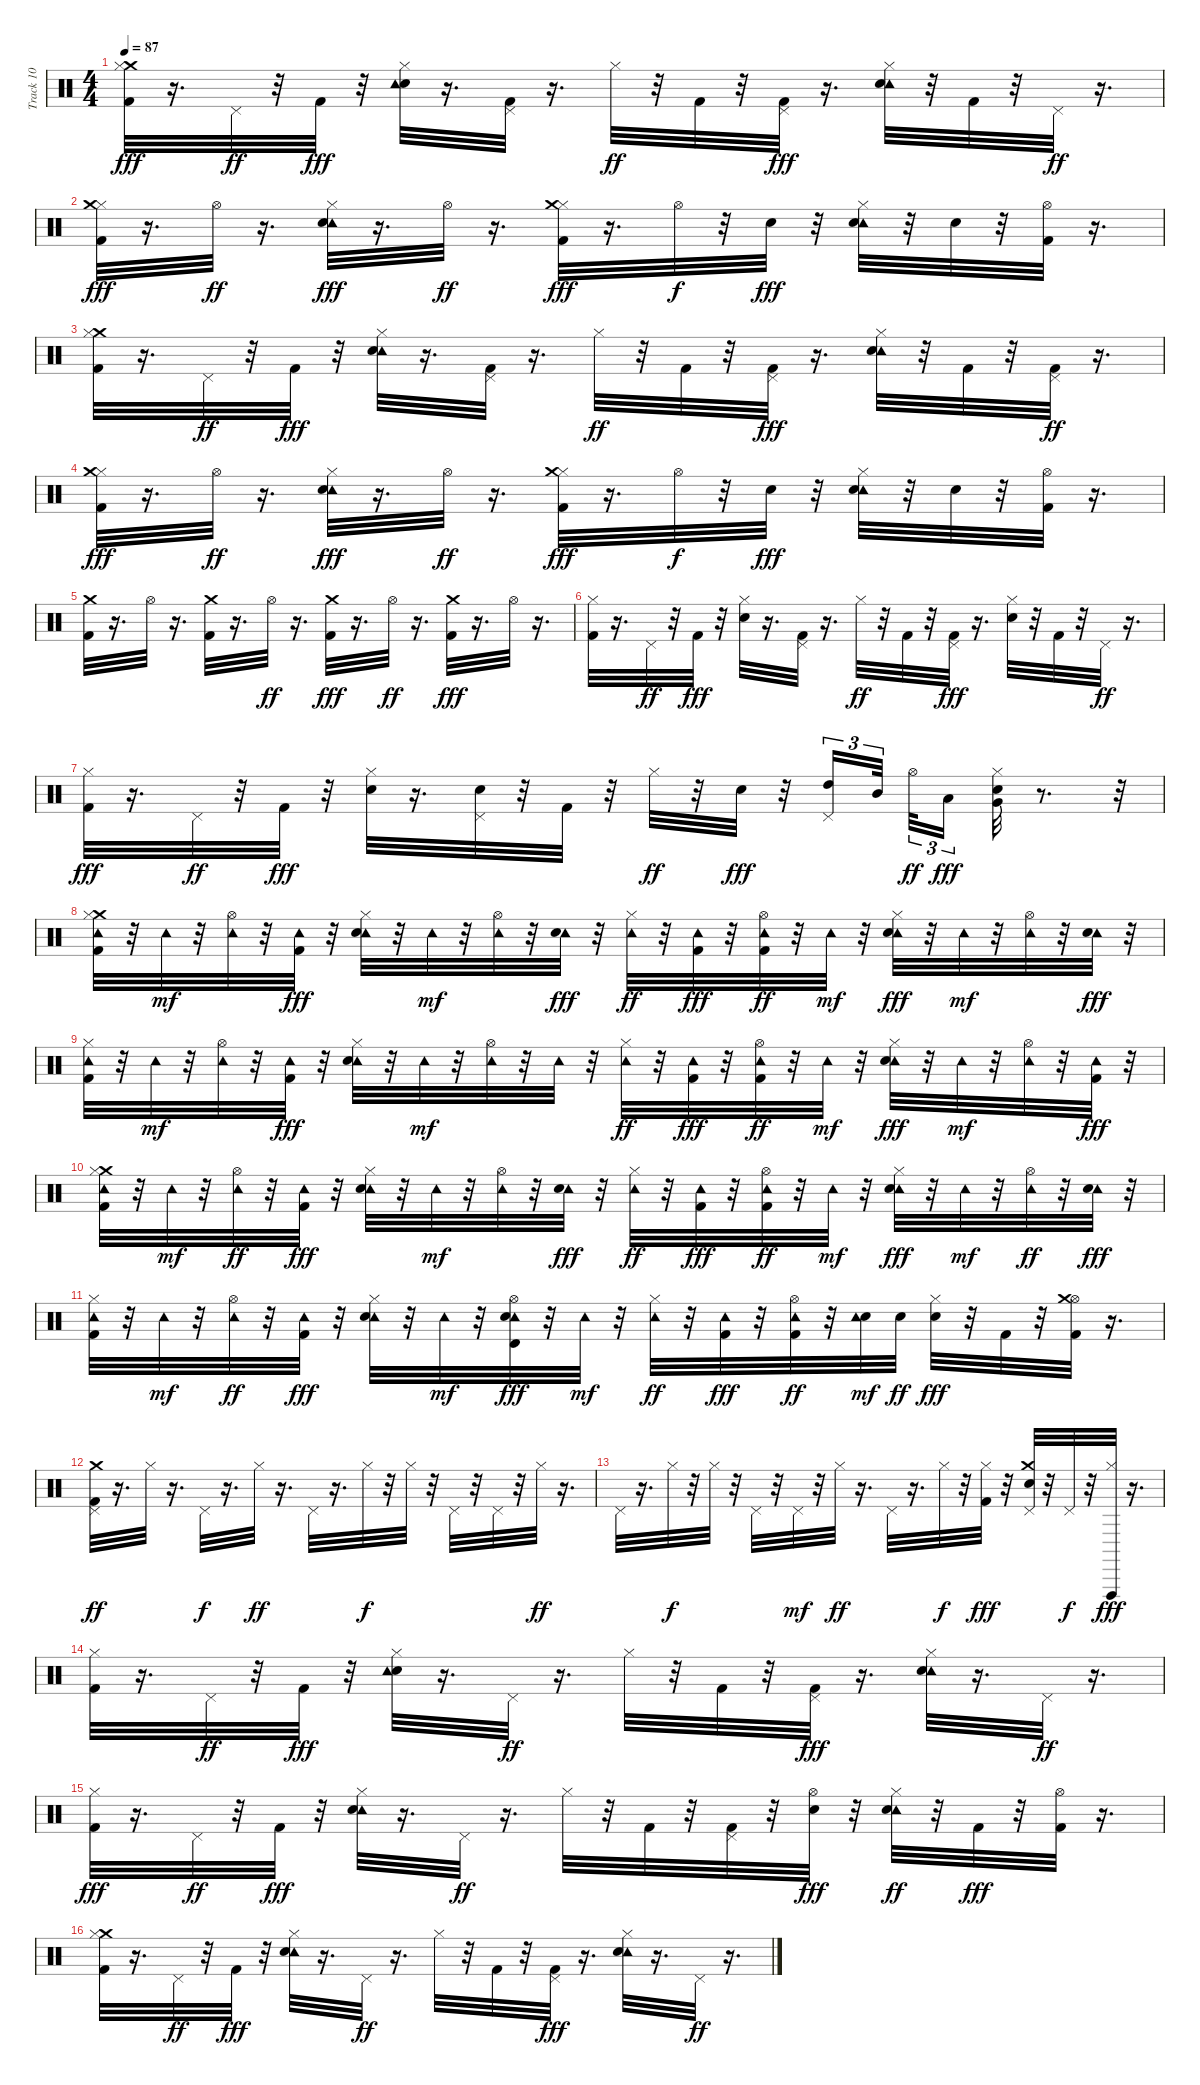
\track ("Track 10" "Track 10") {instrument percussion}
\staff {score}
\articulation defaults
\ts (4 4)
\tempo 87
\clef neutral
\ks c
("Crash medium (hit)" "Hi-Hat (closed)" "Kick (hit) 2").32{dy fff} r.16{d} "Pedal Hi-Hat (hit)".32{dy ff} r.32 "Kick (hit) 2".32{dy fff} r.32 ("Hi-Hat (closed)" "Snare (hit) 2" "Tambourine (hit)").32 r.16{d} ("Pedal Hi-Hat (hit)" "Kick (hit) 2").32 r.16{d} "Hi-Hat (closed)".32{dy ff} r.32 "Kick (hit) 2".32 r.32 ("Pedal Hi-Hat (hit)" "Kick (hit) 2").32{dy fff} r.16{d} ("Hi-Hat (closed)" "Tambourine (hit)" "Snare (hit) 2").32 r.32 "Kick (hit) 2".32 r.32 "Pedal Hi-Hat (hit)".32{dy ff} r.16{d} |
("Hi-Hat (closed)" "Kick (hit) 2" "Crash medium (hit)").32{dy fff} r.16{d} "Hi-Hat (open)".32{dy ff} r.16{d} ("Tambourine (hit)" "Hi-Hat (closed)" "Snare (hit) 2").32{dy fff} r.16{d} "Hi-Hat (open)".32{dy ff} r.16{d} ("Hi-Hat (closed)" "Kick (hit) 2" "Crash medium (hit)").32{dy fff} r.16{d} "Hi-Hat (open)".32{dy f} r.32 "Snare (hit) 2".32{dy fff} r.32 ("Tambourine (hit)" "Hi-Hat (closed)" "Snare (hit) 2").32 r.32 "Snare (hit) 2".32 r.32 ("Hi-Hat (open)" "Kick (hit) 2").32 r.16{d} |
("Crash medium (hit)" "Hi-Hat (closed)" "Kick (hit) 2").32 r.16{d} "Pedal Hi-Hat (hit)".32{dy ff} r.32 "Kick (hit) 2".32{dy fff} r.32 ("Tambourine (hit)" "Hi-Hat (closed)" "Snare (hit) 2").32 r.16{d} ("Pedal Hi-Hat (hit)" "Kick (hit) 2").32 r.16{d} "Hi-Hat (closed)".32{dy ff} r.32 "Kick (hit) 2".32 r.32 ("Pedal Hi-Hat (hit)" "Kick (hit) 2").32{dy fff} r.16{d} ("Tambourine (hit)" "Hi-Hat (closed)" "Snare (hit) 2").32 r.32 "Kick (hit) 2".32 r.32 ("Pedal Hi-Hat (hit)" "Kick (hit) 2").32{dy ff} r.16{d} |
("Hi-Hat (closed)" "Kick (hit) 2" "Crash medium (hit)").32{dy fff} r.16{d} "Hi-Hat (open)".32{dy ff} r.16{d} ("Tambourine (hit)" "Hi-Hat (closed)" "Snare (hit) 2").32{dy fff} r.16{d} "Hi-Hat (open)".32{dy ff} r.16{d} ("Hi-Hat (closed)" "Kick (hit) 2" "Crash medium (hit)").32{dy fff} r.16{d} "Hi-Hat (open)".32{dy f} r.32 "Snare (hit) 2".32{dy fff} r.32 ("Tambourine (hit)" "Hi-Hat (closed)" "Snare (hit) 2").32 r.32 "Snare (hit) 2".32 r.32 ("Hi-Hat (open)" "Kick (hit) 2").32 r.16{d} |
("Crash medium (hit)" "Kick (hit) 2").32 r.16{d} "Hi-Hat (open)".32 r.16{d} ("Kick (hit) 2" "Crash medium (hit)").32 r.16{d} "Hi-Hat (open)".32{dy ff} r.16{d} ("Kick (hit) 2" "Crash medium (hit)").32{dy fff} r.16{d} "Hi-Hat (open)".32{dy ff} r.16{d} ("Kick (hit) 2" "Crash medium (hit)").32{dy fff} r.16{d} "Hi-Hat (open)".32 r.16{d} |
("Hi-Hat (closed)" "Kick (hit) 2").32 r.16{d} "Pedal Hi-Hat (hit)".32{dy ff} r.32 "Kick (hit) 2".32{dy fff} r.32 ("Hi-Hat (closed)" "Snare (hit) 2").32 r.16{d} ("Pedal Hi-Hat (hit)" "Kick (hit) 2").32 r.16{d} "Hi-Hat (closed)".32{dy ff} r.32 "Kick (hit) 2".32 r.32 ("Pedal Hi-Hat (hit)" "Kick (hit) 2").32{dy fff} r.16{d} ("Hi-Hat (closed)" "Snare (hit) 2").32 r.32 "Kick (hit) 2".32 r.32 "Pedal Hi-Hat (hit)".32{dy ff} r.16{d} |
("Hi-Hat (closed)" "Kick (hit) 2").32{dy fff} r.16{d} "Pedal Hi-Hat (hit)".32{dy ff} r.32 "Kick (hit) 2".32{dy fff} r.32 ("Hi-Hat (closed)" "Snare (hit) 2").32 r.16{d} ("Pedal Hi-Hat (hit)" "Snare (hit) 2").32 r.32 "Kick (hit) 2".32 r.32 "Hi-Hat (closed)".32{dy ff} r.32 "Snare (hit) 2".32{dy fff} r.32 ("High Tom (hit)" "Pedal Hi-Hat (hit)").16{tu (3 2)} "Mid Tom (hit)".32{tu (3 2) beam splitsecondary} "Hi-Hat (open)".32{tu (3 2) dy ff} "Low Tom (hit)".16{tu (3 2) dy fff} ("Very Low Tom (hit)" "Hi-Hat (closed)" "Snare (hit) 2").32 r.8{d} r.32 |
("Crash medium (hit)" "Hi-Hat (closed)" "Tambourine (hit)" "Kick (hit) 2").32 r.32 "Tambourine (hit)".32{dy mf} r.32 ("Hi-Hat (open)" "Tambourine (hit)").32 r.32 ("Tambourine (hit)" "Kick (hit) 2").32{dy fff} r.32 ("Hi-Hat (closed)" "Tambourine (hit)" "Snare (hit) 2").32 r.32 "Tambourine (hit)".32{dy mf} r.32 ("Hi-Hat (open)" "Tambourine (hit)").32 r.32 ("Tambourine (hit)" "Snare (hit) 2").32{dy fff} r.32 ("Hi-Hat (closed)" "Tambourine (hit)").32{dy ff} r.32 ("Tambourine (hit)" "Kick (hit) 2").32{dy fff} r.32 ("Hi-Hat (open)" "Tambourine (hit)" "Kick (hit) 2").32{dy ff} r.32 "Tambourine (hit)".32{dy mf} r.32 ("Hi-Hat (closed)" "Tambourine (hit)" "Snare (hit) 2").32{dy fff} r.32 "Tambourine (hit)".32{dy mf} r.32 ("Hi-Hat (open)" "Tambourine (hit)").32 r.32 ("Tambourine (hit)" "Snare (hit) 2").32{dy fff} r.32 |
("Hi-Hat (closed)" "Tambourine (hit)" "Kick (hit) 2").32 r.32 "Tambourine (hit)".32{dy mf} r.32 ("Hi-Hat (open)" "Tambourine (hit)").32 r.32 ("Tambourine (hit)" "Kick (hit) 2").32{dy fff} r.32 ("Hi-Hat (closed)" "Tambourine (hit)" "Snare (hit) 2").32 r.32 "Tambourine (hit)".32{dy mf} r.32 ("Hi-Hat (open)" "Tambourine (hit)").32 r.32 "Tambourine (hit)".32 r.32 ("Hi-Hat (closed)" "Tambourine (hit)").32{dy ff} r.32 ("Tambourine (hit)" "Kick (hit) 2").32{dy fff} r.32 ("Hi-Hat (open)" "Tambourine (hit)" "Kick (hit) 2").32{dy ff} r.32 "Tambourine (hit)".32{dy mf} r.32 ("Hi-Hat (closed)" "Tambourine (hit)" "Snare (hit) 2").32{dy fff} r.32 "Tambourine (hit)".32{dy mf} r.32 ("Hi-Hat (open)" "Tambourine (hit)").32 r.32 ("Tambourine (hit)" "Kick (hit) 2").32{dy fff} r.32 |
("Tambourine (hit)" "Crash medium (hit)" "Hi-Hat (closed)" "Kick (hit) 2").32 r.32 "Tambourine (hit)".32{dy mf} r.32 ("Tambourine (hit)" "Hi-Hat (open)").32{dy ff} r.32 ("Tambourine (hit)" "Kick (hit) 2").32{dy fff} r.32 ("Tambourine (hit)" "Hi-Hat (closed)" "Snare (hit) 2").32 r.32 "Tambourine (hit)".32{dy mf} r.32 ("Tambourine (hit)" "Hi-Hat (open)").32 r.32 ("Tambourine (hit)" "Snare (hit) 2").32{dy fff} r.32 ("Tambourine (hit)" "Hi-Hat (closed)").32{dy ff} r.32 ("Tambourine (hit)" "Kick (hit) 2").32{dy fff} r.32 ("Tambourine (hit)" "Hi-Hat (open)" "Kick (hit) 2").32{dy ff} r.32 "Tambourine (hit)".32{dy mf} r.32 ("Tambourine (hit)" "Hi-Hat (closed)" "Snare (hit) 2").32{dy fff} r.32 "Tambourine (hit)".32{dy mf} r.32 ("Tambourine (hit)" "Hi-Hat (open)").32{dy ff} r.32 ("Tambourine (hit)" "Snare (hit) 2").32{dy fff} r.32 |
("Tambourine (hit)" "Hi-Hat (closed)" "Kick (hit) 2").32 r.32 "Tambourine (hit)".32{dy mf} r.32 ("Tambourine (hit)" "Hi-Hat (open)").32{dy ff} r.32 ("Tambourine (hit)" "Kick (hit) 2").32{dy fff} r.32 ("Tambourine (hit)" "Hi-Hat (closed)" "Snare (hit) 2").32 r.32 "Tambourine (hit)".32{dy mf} r.32 ("Tambourine (hit)" "Hi-Hat (open)" "Timbale high (hit)" "Snare (hit) 2").32{dy fff} r.32 "Tambourine (hit)".32{dy mf} r.32 ("Tambourine (hit)" "Hi-Hat (closed)").32{dy ff} r.32 ("Tambourine (hit)" "Kick (hit) 2").32{dy fff} r.32 ("Tambourine (hit)" "Hi-Hat (open)" "Kick (hit) 2").32{dy ff} r.32 ("Snare (hit) 2" "Tambourine (hit)").32{dy mf} "Snare (hit) 2".32{dy ff} ("Hi-Hat (closed)" "Snare (hit) 2").32{dy fff} r.32 "Kick (hit) 2".32 r.32 ("Hi-Hat (open)" "Kick (hit) 2" "Crash medium (hit)").32 r.16{d} |
("Kick (hit) 2" "Crash medium (hit)" "Pedal Hi-Hat (hit)").32{dy ff} r.16{d} "Hi-Hat (closed)".32 r.16{d} "Pedal Hi-Hat (hit)".32{dy f} r.16{d} "Hi-Hat (closed)".32{dy ff} r.16{d} "Pedal Hi-Hat (hit)".32 r.16{d} "Hi-Hat (closed)".32{dy f} r.32 "Hi-Hat (closed)".32 r.32 "Pedal Hi-Hat (hit)".32 r.32 "Pedal Hi-Hat (hit)".32 r.32 "Hi-Hat (closed)".32{dy ff} r.16{d} |
"Pedal Hi-Hat (hit)".32 r.16{d} "Hi-Hat (closed)".32{dy f} r.32 "Hi-Hat (closed)".32 r.32 "Pedal Hi-Hat (hit)".32 r.32 "Pedal Hi-Hat (hit)".32{dy mf} r.32 "Hi-Hat (closed)".32{dy ff} r.16{d} "Pedal Hi-Hat (hit)".32 r.16{d} "Hi-Hat (closed)".32{dy f} r.32 ("Hi-Hat (closed)" "Kick (hit) 2").32{dy fff} r.32 ("Pedal Hi-Hat (hit)" "Crash medium (hit)" "Snare (hit) 2").32 r.32 "Pedal Hi-Hat (hit)".32{dy f} r.32 ("Hi-Hat (closed)" "Vibraslap (hit)").32{dy fff} r.16{d} |
("Hi-Hat (closed)" "Kick (hit) 2").32 r.16{d} "Pedal Hi-Hat (hit)".32{dy ff} r.32 "Kick (hit) 2".32{dy fff} r.32 ("Hi-Hat (closed)" "Snare (hit) 2" "Tambourine (hit)").32 r.16{d} "Pedal Hi-Hat (hit)".32{dy ff} r.16{d} "Hi-Hat (closed)".32 r.32 "Kick (hit) 2".32 r.32 ("Pedal Hi-Hat (hit)" "Kick (hit) 2").32{dy fff} r.16{d} ("Hi-Hat (closed)" "Tambourine (hit)" "Snare (hit) 2").32 r.16{d} "Pedal Hi-Hat (hit)".32{dy ff} r.16{d} |
("Hi-Hat (closed)" "Kick (hit) 2").32{dy fff} r.16{d} "Pedal Hi-Hat (hit)".32{dy ff} r.32 "Kick (hit) 2".32{dy fff} r.32 ("Hi-Hat (closed)" "Tambourine (hit)" "Snare (hit) 2").32 r.16{d} "Pedal Hi-Hat (hit)".32{dy ff} r.16{d} "Hi-Hat (closed)".32 r.32 "Kick (hit) 2".32 r.32 ("Pedal Hi-Hat (hit)" "Kick (hit) 2").32 r.32 ("Hi-Hat (open)" "Snare (hit) 2").32{dy fff} r.32 ("Tambourine (hit)" "Snare (hit) 2" "Hi-Hat (closed)").32{dy ff} r.32 "Kick (hit) 2".32{dy fff} r.32 ("Kick (hit) 2" "Hi-Hat (open)").32 r.16{d} |
("Crash medium (hit)" "Hi-Hat (closed)" "Kick (hit) 2").32 r.16{d} "Pedal Hi-Hat (hit)".32{dy ff} r.32 "Kick (hit) 2".32{dy fff} r.32 ("Tambourine (hit)" "Hi-Hat (closed)" "Snare (hit) 2").32 r.16{d} "Pedal Hi-Hat (hit)".32{dy ff} r.16{d} "Hi-Hat (closed)".32 r.32 "Kick (hit) 2".32 r.32 ("Pedal Hi-Hat (hit)" "Kick (hit) 2").32{dy fff} r.16{d} ("Tambourine (hit)" "Hi-Hat (closed)" "Snare (hit) 2").32 r.16{d} "Pedal Hi-Hat (hit)".32{dy ff} r.16{d}
